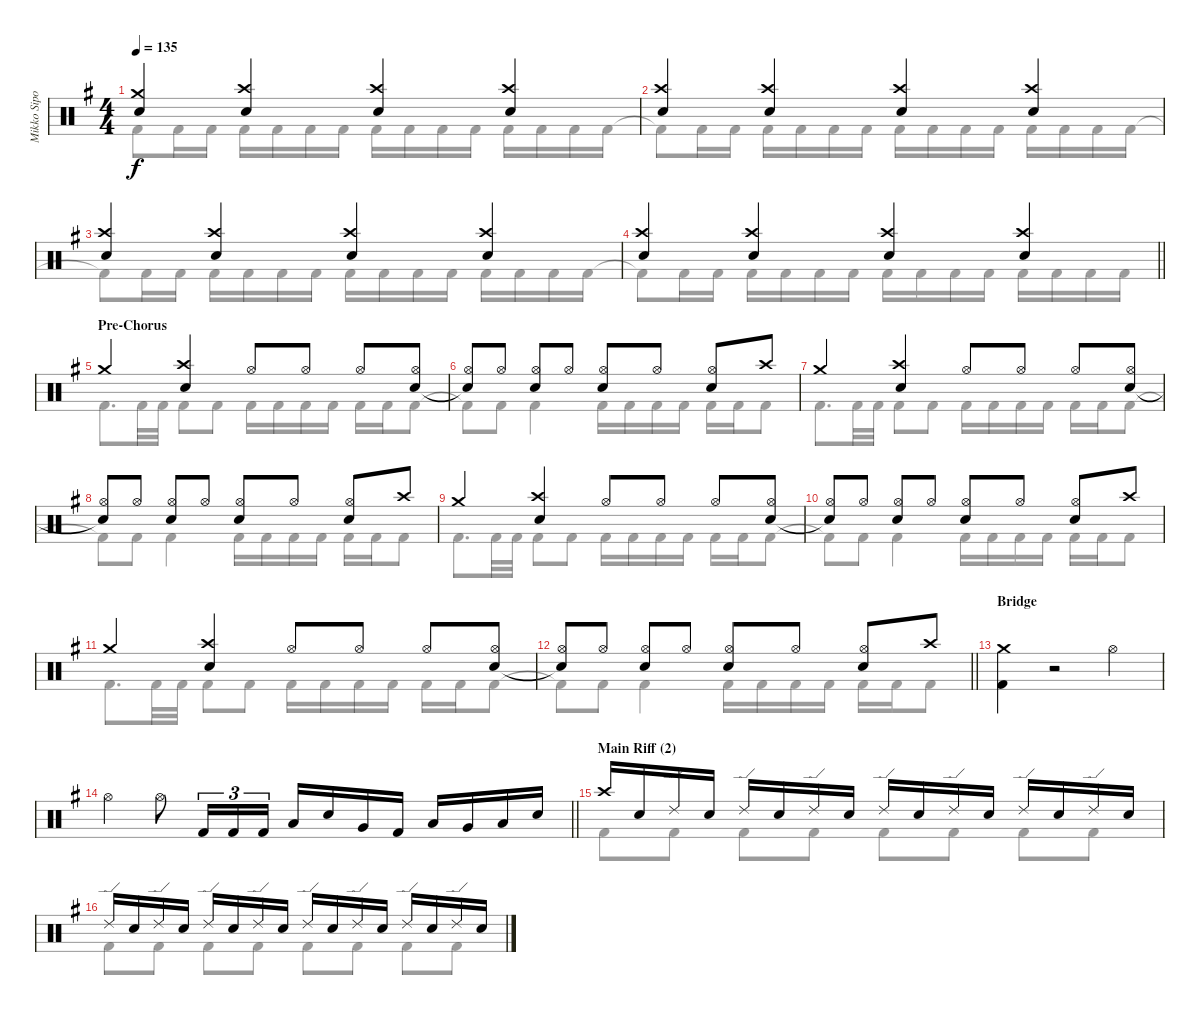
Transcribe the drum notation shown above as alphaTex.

\track ("Mikko Sipola (drums)" "Mikko Sipo") {instrument percussion}
\staff {score}
\articulation defaults
\voice
\ts (4 4)
\tempo 135
\clef neutral
\ks eminor
("Electric Snare (hit)" "Crash medium (hit)").4{dy f} ("Electric Snare (hit)" "Crash high (hit)").4 ("Electric Snare (hit)" "Crash high (hit)").4 ("Electric Snare (hit)" "Crash high (hit)").4 |
("Electric Snare (hit)" "Crash high (hit)").4 ("Electric Snare (hit)" "Crash high (hit)").4 ("Electric Snare (hit)" "Crash high (hit)").4 ("Electric Snare (hit)" "Crash high (hit)").4 |
("Electric Snare (hit)" "Crash high (hit)").4 ("Electric Snare (hit)" "Crash high (hit)").4 ("Electric Snare (hit)" "Crash high (hit)").4 ("Electric Snare (hit)" "Crash high (hit)").4 |
\barLineRight lightlight
("Electric Snare (hit)" "Crash high (hit)").4 ("Electric Snare (hit)" "Crash high (hit)").4 ("Electric Snare (hit)" "Crash high (hit)").4 ("Electric Snare (hit)" "Crash high (hit)").4 |
\section ("" "Pre-Chorus")
"Crash medium (hit)".4 ("Crash high (hit)" "Electric Snare (hit)").4 "Hi-Hat (open)".8 "Hi-Hat (open)".8 "Hi-Hat (open)".8 ("Hi-Hat (open)" "Electric Snare (hit)").8 |
("Hi-Hat (open)" "Snare (hit)"{t}).8 "Hi-Hat (open)".8 ("Hi-Hat (open)" "Electric Snare (hit)").8 "Hi-Hat (open)".8 ("Hi-Hat (open)" "Electric Snare (hit)").8 "Hi-Hat (open)".8 ("Hi-Hat (open)" "Electric Snare (hit)").8 "Crash high (hit)".8 |
"Crash medium (hit)".4 ("Crash high (hit)" "Electric Snare (hit)").4 "Hi-Hat (open)".8 "Hi-Hat (open)".8 "Hi-Hat (open)".8 ("Hi-Hat (open)" "Electric Snare (hit)").8 |
("Hi-Hat (open)" "Snare (hit)"{t}).8 "Hi-Hat (open)".8 ("Hi-Hat (open)" "Electric Snare (hit)").8 "Hi-Hat (open)".8 ("Hi-Hat (open)" "Electric Snare (hit)").8 "Hi-Hat (open)".8 ("Hi-Hat (open)" "Electric Snare (hit)").8 "Crash high (hit)".8 |
"Crash medium (hit)".4 ("Crash high (hit)" "Electric Snare (hit)").4 "Hi-Hat (open)".8 "Hi-Hat (open)".8 "Hi-Hat (open)".8 ("Hi-Hat (open)" "Electric Snare (hit)").8 |
("Hi-Hat (open)" "Snare (hit)"{t}).8 "Hi-Hat (open)".8 ("Hi-Hat (open)" "Electric Snare (hit)").8 "Hi-Hat (open)".8 ("Hi-Hat (open)" "Electric Snare (hit)").8 "Hi-Hat (open)".8 ("Hi-Hat (open)" "Electric Snare (hit)").8 "Crash high (hit)".8 |
"Crash medium (hit)".4 ("Crash high (hit)" "Electric Snare (hit)").4 "Hi-Hat (open)".8 "Hi-Hat (open)".8 "Hi-Hat (open)".8 ("Hi-Hat (open)" "Electric Snare (hit)").8 |
\barLineRight lightlight
("Hi-Hat (open)" "Snare (hit)"{t}).8 "Hi-Hat (open)".8 ("Hi-Hat (open)" "Electric Snare (hit)").8 "Hi-Hat (open)".8 ("Hi-Hat (open)" "Electric Snare (hit)").8 "Hi-Hat (open)".8 ("Hi-Hat (open)" "Electric Snare (hit)").8 "Crash high (hit)".8 |
\section ("" "Bridge")
("Crash medium (hit)" "Kick (hit) 2").4 r.2 "Hi-Hat (open)".4 |
\barLineRight lightlight "Hi-Hat (open)".4 "Hi-Hat (open)".8 "Kick (hit) 2".16{tu (3 2)} "Kick (hit) 2".16{tu (3 2)} "Kick (hit) 2".16{tu (3 2)} "Low Tom (hit)".16 "Electric Snare (hit)".16 "Very Low Tom (hit)".16 "Kick (hit) 2".16 "Low Tom (hit)".16 "Very Low Tom (hit)".16 "Low Floor Tom (hit)".16 "Electric Snare (hit)".16
|
\section ("" "Main Riff (2)")
"Crash high (hit)".16 "Electric Snare (hit)".16 "Ride (edge) 2".16 "Electric Snare (hit)".16 "Ride (edge) 2".16 "Electric Snare (hit)".16 "Ride (edge) 2".16 "Electric Snare (hit)".16 "Ride (edge) 2".16 "Electric Snare (hit)".16 "Ride (edge) 2".16 "Electric Snare (hit)".16 "Ride (edge) 2".16 "Electric Snare (hit)".16 "Ride (edge) 2".16 "Electric Snare (hit)".16 |
"Ride (edge) 2".16 "Electric Snare (hit)".16 "Ride (edge) 2".16 "Electric Snare (hit)".16 "Ride (edge) 2".16 "Electric Snare (hit)".16 "Ride (edge) 2".16 "Electric Snare (hit)".16 "Ride (edge) 2".16 "Electric Snare (hit)".16 "Ride (edge) 2".16 "Electric Snare (hit)".16 "Ride (edge) 2".16 "Electric Snare (hit)".16 "Ride (edge) 2".16 "Electric Snare (hit)".16
\voice
\clef neutral
\ottava regular
\simile none
\ks eminor "Kick (hit) 2"{t}.8{dy f} "Kick (hit) 2".16 "Kick (hit) 2".16 "Kick (hit) 2".16 "Kick (hit) 2".16 "Kick (hit) 2".16 "Kick (hit) 2".16 "Kick (hit) 2".16 "Kick (hit) 2".16 "Kick (hit) 2".16 "Kick (hit) 2".16 "Kick (hit) 2".16 "Kick (hit) 2".16 "Kick (hit) 2".16 "Kick (hit) 2".16
|
"Kick (hit) 2"{t}.8 "Kick (hit) 2".16 "Kick (hit) 2".16 "Kick (hit) 2".16 "Kick (hit) 2".16 "Kick (hit) 2".16 "Kick (hit) 2".16 "Kick (hit) 2".16 "Kick (hit) 2".16 "Kick (hit) 2".16 "Kick (hit) 2".16 "Kick (hit) 2".16 "Kick (hit) 2".16 "Kick (hit) 2".16 "Kick (hit) 2".16 |
"Kick (hit) 2"{t}.8 "Kick (hit) 2".16 "Kick (hit) 2".16 "Kick (hit) 2".16 "Kick (hit) 2".16 "Kick (hit) 2".16 "Kick (hit) 2".16 "Kick (hit) 2".16 "Kick (hit) 2".16 "Kick (hit) 2".16 "Kick (hit) 2".16 "Kick (hit) 2".16 "Kick (hit) 2".16 "Kick (hit) 2".16 "Kick (hit) 2".16 |
\barLineRight lightlight "Kick (hit) 2"{t}.8 "Kick (hit) 2".16 "Kick (hit) 2".16 "Kick (hit) 2".16 "Kick (hit) 2".16 "Kick (hit) 2".16 "Kick (hit) 2".16 "Kick (hit) 2".16 "Kick (hit) 2".16 "Kick (hit) 2".16 "Kick (hit) 2".16 "Kick (hit) 2".16 "Kick (hit) 2".16 "Kick (hit) 2".16 "Kick (hit) 2".16
|
"Kick (hit) 2".8{d} "Kick (hit) 2".32 "Kick (hit) 2".32 "Kick (hit) 2".8 "Kick (hit) 2".8 "Kick (hit) 2".16 "Kick (hit) 2".16 "Kick (hit) 2".16 "Kick (hit) 2".16 "Kick (hit) 2".16 "Kick (hit) 2".16 "Kick (hit) 2".8 |
"Kick (hit) 2"{t}.8 "Kick (hit) 2".8 "Kick (hit) 2".4 "Kick (hit) 2".16 "Kick (hit) 2".16 "Kick (hit) 2".16 "Kick (hit) 2".16 "Kick (hit) 2".16 "Kick (hit) 2".16 "Kick (hit) 2".8 |
"Kick (hit) 2".8{d} "Kick (hit) 2".32 "Kick (hit) 2".32 "Kick (hit) 2".8 "Kick (hit) 2".8 "Kick (hit) 2".16 "Kick (hit) 2".16 "Kick (hit) 2".16 "Kick (hit) 2".16 "Kick (hit) 2".16 "Kick (hit) 2".16 "Kick (hit) 2".8 |
"Kick (hit) 2"{t}.8 "Kick (hit) 2".8 "Kick (hit) 2".4 "Kick (hit) 2".16 "Kick (hit) 2".16 "Kick (hit) 2".16 "Kick (hit) 2".16 "Kick (hit) 2".16 "Kick (hit) 2".16 "Kick (hit) 2".8 |
"Kick (hit) 2".8{d} "Kick (hit) 2".32 "Kick (hit) 2".32 "Kick (hit) 2".8 "Kick (hit) 2".8 "Kick (hit) 2".16 "Kick (hit) 2".16 "Kick (hit) 2".16 "Kick (hit) 2".16 "Kick (hit) 2".16 "Kick (hit) 2".16 "Kick (hit) 2".8 |
"Kick (hit) 2"{t}.8 "Kick (hit) 2".8 "Kick (hit) 2".4 "Kick (hit) 2".16 "Kick (hit) 2".16 "Kick (hit) 2".16 "Kick (hit) 2".16 "Kick (hit) 2".16 "Kick (hit) 2".16 "Kick (hit) 2".8 |
"Kick (hit) 2".8{d} "Kick (hit) 2".32 "Kick (hit) 2".32 "Kick (hit) 2".8 "Kick (hit) 2".8 "Kick (hit) 2".16 "Kick (hit) 2".16 "Kick (hit) 2".16 "Kick (hit) 2".16 "Kick (hit) 2".16 "Kick (hit) 2".16 "Kick (hit) 2".8 |
\barLineRight lightlight "Kick (hit) 2"{t}.8 "Kick (hit) 2".8 "Kick (hit) 2".4 "Kick (hit) 2".16 "Kick (hit) 2".16 "Kick (hit) 2".16 "Kick (hit) 2".16 "Kick (hit) 2".16 "Kick (hit) 2".16 "Kick (hit) 2".8
|
|
\barLineRight lightlight
|
"Kick (hit) 2".8 "Kick (hit) 2".8 "Kick (hit) 2".8 "Kick (hit) 2".8 "Kick (hit) 2".8 "Kick (hit) 2".8 "Kick (hit) 2".8 "Kick (hit) 2".8 |
"Kick (hit) 2".8 "Kick (hit) 2".8 "Kick (hit) 2".8 "Kick (hit) 2".8 "Kick (hit) 2".8 "Kick (hit) 2".8 "Kick (hit) 2".8 "Kick (hit) 2".8
